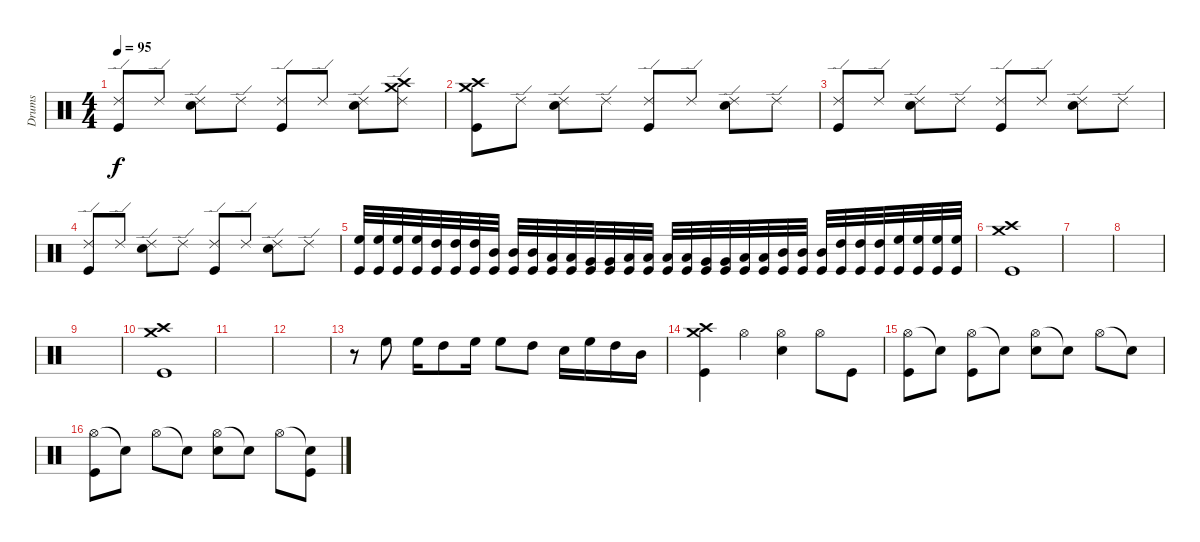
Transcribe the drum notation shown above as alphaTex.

\track ("Drums" "Drums") {instrument percussion}
\staff {score}
\articulation defaults
\ts (4 4)
\tempo 95
\clef neutral
\ks c
("Ride (edge) 2" "Kick (hit)").8{dy f} "Ride (edge) 2".8 ("Ride (edge) 2" "Electric Snare (hit)").8 "Ride (edge) 2".8 ("Ride (edge) 2" "Kick (hit)").8 "Ride (edge) 2".8 ("Ride (edge) 2" "Electric Snare (hit)").8 ("Ride (edge) 2" "Crash medium (hit)" "Crash high (hit)").8 |
("Crash high (hit)" "Crash medium (hit)" "Kick (hit)").8 "Ride (edge) 2".8 ("Ride (edge) 2" "Electric Snare (hit)").8 "Ride (edge) 2".8 ("Ride (edge) 2" "Kick (hit)").8 "Ride (edge) 2".8 ("Ride (edge) 2" "Electric Snare (hit)").8 "Ride (edge) 2".8 |
("Ride (edge) 2" "Kick (hit)").8 "Ride (edge) 2".8 ("Ride (edge) 2" "Electric Snare (hit)").8 "Ride (edge) 2".8 ("Ride (edge) 2" "Kick (hit)").8 "Ride (edge) 2".8 ("Ride (edge) 2" "Electric Snare (hit)").8 "Ride (edge) 2".8 |
("Ride (edge) 2" "Kick (hit)").8 "Ride (edge) 2".8 ("Ride (edge) 2" "Electric Snare (hit)").8 "Ride (edge) 2".8 ("Ride (edge) 2" "Kick (hit)").8 "Ride (edge) 2".8 ("Ride (edge) 2" "Electric Snare (hit)").8 "Ride (edge) 2".8 |
("Kick (hit)" "High Floor Tom (hit)").32 ("Kick (hit)" "High Floor Tom (hit)").32 ("Kick (hit)" "High Floor Tom (hit)").32 ("Kick (hit)" "High Floor Tom (hit)").32 ("Kick (hit)" "High Tom (hit)").32 ("Kick (hit)" "High Tom (hit)").32 ("Kick (hit)" "High Tom (hit)").32 ("Kick (hit)" "Mid Tom (hit)").32 ("Kick (hit)" "Mid Tom (hit)").32 ("Kick (hit)" "Mid Tom (hit)").32 ("Kick (hit)" "Low Tom (hit)").32 ("Kick (hit)" "Low Tom (hit)").32 ("Kick (hit)" "Very Low Tom (hit)").32 ("Kick (hit)" "Very Low Tom (hit)").32 ("Kick (hit)" "Low Floor Tom (hit)").32 ("Kick (hit)" "Low Floor Tom (hit)").32 ("Kick (hit)" "Low Floor Tom (hit)").32 ("Kick (hit)" "Low Floor Tom (hit)").32 ("Kick (hit)" "Very Low Tom (hit)").32 ("Kick (hit)" "Very Low Tom (hit)").32 ("Kick (hit)" "Low Tom (hit)").32 ("Kick (hit)" "Low Tom (hit)").32 ("Kick (hit)" "Mid Tom (hit)").32 ("Kick (hit)" "Mid Tom (hit)").32 ("Kick (hit)" "Mid Tom (hit)").32 ("Kick (hit)" "High Tom (hit)").32 ("Kick (hit)" "High Tom (hit)").32 ("Kick (hit)" "High Tom (hit)").32 ("Kick (hit)" "High Floor Tom (hit)").32 ("Kick (hit)" "High Floor Tom (hit)").32 ("Kick (hit)" "High Floor Tom (hit)").32 ("Kick (hit)" "High Floor Tom (hit)").32 |
("Crash medium (hit)" "Crash high (hit)" "Kick (hit)").1 |
|
|
|
("Crash medium (hit)" "Crash high (hit)" "Kick (hit)").1 |
|
|
r.8 "High Floor Tom (hit)".8 "High Floor Tom (hit)".16 "High Tom (hit)".8 "High Floor Tom (hit)".16 "High Floor Tom (hit)".8 "High Tom (hit)".8 "Snare (hit) 2".16 "High Floor Tom (hit)".16 "High Tom (hit)".16 "Mid Tom (hit)".16 |
("Crash medium (hit)" "Crash high (hit)" "Kick (hit)").4 "Hi-Hat (open)".4 ("Hi-Hat (open)" "Snare (hit) 2").4 "Hi-Hat (open)".8 "Kick (hit)".8 |
("Hi-Hat (open)" "Kick (hit)").8 "Snare (hit)"{t}.8 ("Hi-Hat (open)" "Kick (hit)").8 "Snare (hit)"{t}.8 ("Hi-Hat (open)" "Snare (hit) 2").8 "Snare (hit)"{t}.8 "Hi-Hat (open)".8 "Snare (hit)"{t}.8 |
("Hi-Hat (open)" "Kick (hit)").8 "Snare (hit)"{t}.8 "Hi-Hat (open)".8 "Snare (hit)"{t}.8 ("Hi-Hat (open)" "Snare (hit) 2").8 "Snare (hit)"{t}.8 "Hi-Hat (open)".8 ("Snare (hit)"{t} "Kick (hit)").8
